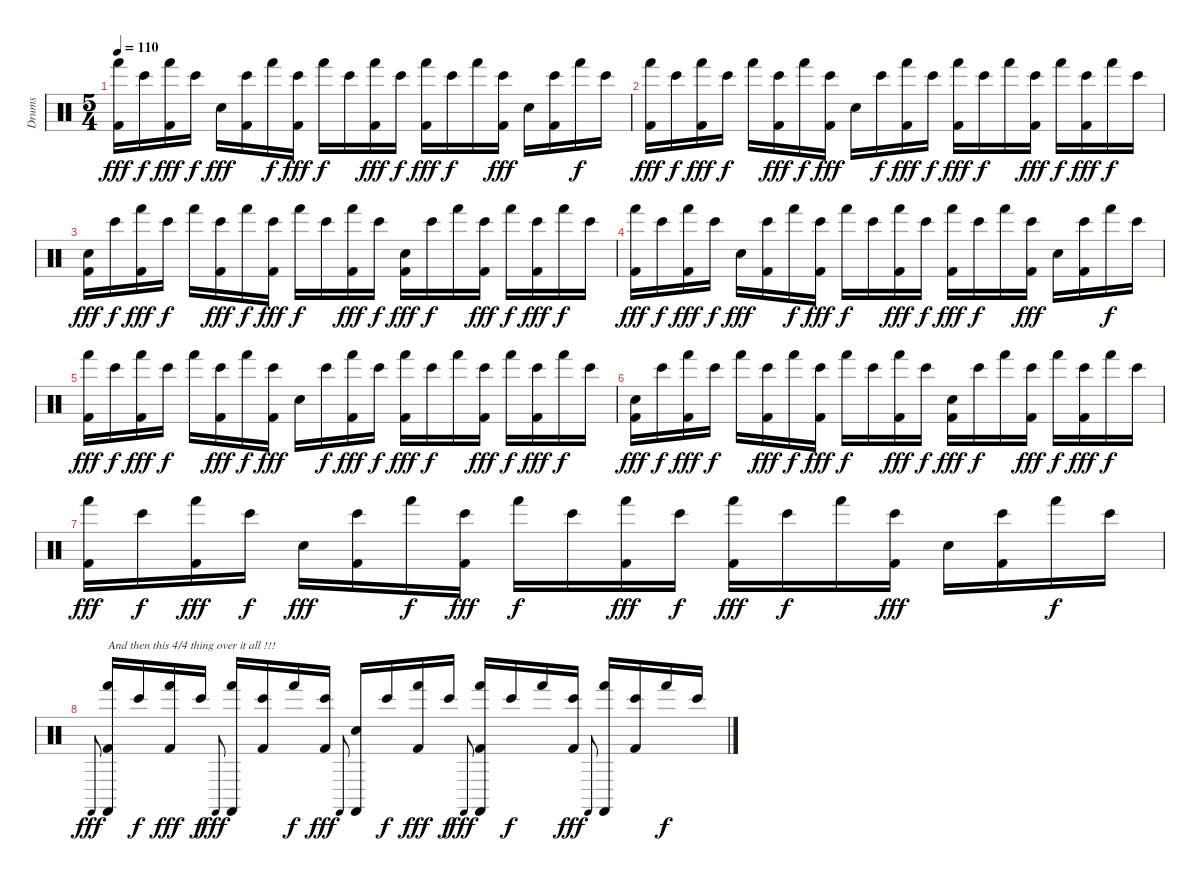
\track ("Drums" "Drums") {instrument percussion}
\staff {score}
\articulation defaults
\ts (5 4)
\tempo 110
\clef neutral
\ks c
("Hand (hit)" "Kick (hit) 2").16{dy fff} "Bongo High (hit)".16{dy f} ("Hand (hit)" "Kick (hit) 2").16{dy fff} "Bongo High (hit)".16{dy f} "Snare (hit) 2".16{dy fff} ("Bongo High (hit)" "Kick (hit) 2").16 "Hand (hit)".16{dy f} ("Bongo High (hit)" "Kick (hit) 2").16{dy fff} "Hand (hit)".16{dy f} "Bongo High (hit)".16 ("Hand (hit)" "Kick (hit) 2").16{dy fff} "Bongo High (hit)".16{dy f} ("Hand (hit)" "Kick (hit) 2").16{dy fff} "Bongo High (hit)".16{dy f} "Hand (hit)".16 ("Bongo High (hit)" "Kick (hit) 2").16{dy fff} "Snare (hit) 2".16 ("Bongo High (hit)" "Kick (hit) 2").16 "Hand (hit)".16{dy f} "Bongo High (hit)".16 |
("Hand (hit)" "Kick (hit) 2").16{dy fff} "Bongo High (hit)".16{dy f} ("Hand (hit)" "Kick (hit) 2").16{dy fff} "Bongo High (hit)".16{dy f} "Hand (hit)".16 ("Bongo High (hit)" "Kick (hit) 2").16{dy fff} "Hand (hit)".16{dy f} ("Bongo High (hit)" "Kick (hit) 2").16{dy fff} "Snare (hit) 2".16 "Bongo High (hit)".16{dy f} ("Hand (hit)" "Kick (hit) 2").16{dy fff} "Bongo High (hit)".16{dy f} ("Hand (hit)" "Kick (hit) 2").16{dy fff} "Bongo High (hit)".16{dy f} "Hand (hit)".16 ("Bongo High (hit)" "Kick (hit) 2").16{dy fff} "Hand (hit)".16{dy f} ("Bongo High (hit)" "Kick (hit) 2").16{dy fff} "Hand (hit)".16{dy f} "Bongo High (hit)".16 |
("Snare (hit) 2" "Kick (hit) 2").16{dy fff} "Bongo High (hit)".16{dy f} ("Hand (hit)" "Kick (hit) 2").16{dy fff} "Bongo High (hit)".16{dy f} "Hand (hit)".16 ("Bongo High (hit)" "Kick (hit) 2").16{dy fff} "Hand (hit)".16{dy f} ("Bongo High (hit)" "Kick (hit) 2").16{dy fff} "Hand (hit)".16{dy f} "Bongo High (hit)".16 ("Hand (hit)" "Kick (hit) 2").16{dy fff} "Bongo High (hit)".16{dy f} ("Snare (hit) 2" "Kick (hit) 2").16{dy fff} "Bongo High (hit)".16{dy f} "Hand (hit)".16 ("Bongo High (hit)" "Kick (hit) 2").16{dy fff} "Hand (hit)".16{dy f} ("Bongo High (hit)" "Kick (hit) 2").16{dy fff} "Hand (hit)".16{dy f} "Bongo High (hit)".16 |
("Hand (hit)" "Kick (hit) 2").16{dy fff} "Bongo High (hit)".16{dy f} ("Hand (hit)" "Kick (hit) 2").16{dy fff} "Bongo High (hit)".16{dy f} "Snare (hit) 2".16{dy fff} ("Bongo High (hit)" "Kick (hit) 2").16 "Hand (hit)".16{dy f} ("Bongo High (hit)" "Kick (hit) 2").16{dy fff} "Hand (hit)".16{dy f} "Bongo High (hit)".16 ("Hand (hit)" "Kick (hit) 2").16{dy fff} "Bongo High (hit)".16{dy f} ("Hand (hit)" "Kick (hit) 2").16{dy fff} "Bongo High (hit)".16{dy f} "Hand (hit)".16 ("Bongo High (hit)" "Kick (hit) 2").16{dy fff} "Snare (hit) 2".16 ("Bongo High (hit)" "Kick (hit) 2").16 "Hand (hit)".16{dy f} "Bongo High (hit)".16 |
("Hand (hit)" "Kick (hit) 2").16{dy fff} "Bongo High (hit)".16{dy f} ("Hand (hit)" "Kick (hit) 2").16{dy fff} "Bongo High (hit)".16{dy f} "Hand (hit)".16 ("Bongo High (hit)" "Kick (hit) 2").16{dy fff} "Hand (hit)".16{dy f} ("Bongo High (hit)" "Kick (hit) 2").16{dy fff} "Snare (hit) 2".16 "Bongo High (hit)".16{dy f} ("Hand (hit)" "Kick (hit) 2").16{dy fff} "Bongo High (hit)".16{dy f} ("Hand (hit)" "Kick (hit) 2").16{dy fff} "Bongo High (hit)".16{dy f} "Hand (hit)".16 ("Bongo High (hit)" "Kick (hit) 2").16{dy fff} "Hand (hit)".16{dy f} ("Bongo High (hit)" "Kick (hit) 2").16{dy fff} "Hand (hit)".16{dy f} "Bongo High (hit)".16 |
("Snare (hit) 2" "Kick (hit) 2").16{dy fff} "Bongo High (hit)".16{dy f} ("Hand (hit)" "Kick (hit) 2").16{dy fff} "Bongo High (hit)".16{dy f} "Hand (hit)".16 ("Bongo High (hit)" "Kick (hit) 2").16{dy fff} "Hand (hit)".16{dy f} ("Bongo High (hit)" "Kick (hit) 2").16{dy fff} "Hand (hit)".16{dy f} "Bongo High (hit)".16 ("Hand (hit)" "Kick (hit) 2").16{dy fff} "Bongo High (hit)".16{dy f} ("Snare (hit) 2" "Kick (hit) 2").16{dy fff} "Bongo High (hit)".16{dy f} "Hand (hit)".16 ("Bongo High (hit)" "Kick (hit) 2").16{dy fff} "Hand (hit)".16{dy f} ("Bongo High (hit)" "Kick (hit) 2").16{dy fff} "Hand (hit)".16{dy f} "Bongo High (hit)".16 |
("Hand (hit)" "Kick (hit) 2").16{dy fff} "Bongo High (hit)".16{dy f} ("Hand (hit)" "Kick (hit) 2").16{dy fff} "Bongo High (hit)".16{dy f} "Snare (hit) 2".16{dy fff} ("Bongo High (hit)" "Kick (hit) 2").16 "Hand (hit)".16{dy f} ("Bongo High (hit)" "Kick (hit) 2").16{dy fff} "Hand (hit)".16{dy f} "Bongo High (hit)".16 ("Hand (hit)" "Kick (hit) 2").16{dy fff} "Bongo High (hit)".16{dy f} ("Hand (hit)" "Kick (hit) 2").16{dy fff} "Bongo High (hit)".16{dy f} "Hand (hit)".16 ("Bongo High (hit)" "Kick (hit) 2").16{dy fff} "Snare (hit) 2".16 ("Bongo High (hit)" "Kick (hit) 2").16 "Hand (hit)".16{dy f} "Bongo High (hit)".16 |
"Castanets (hit)".8{gr onbeat dy fff} ("Castanets (hit)" "Hand (hit)" "Kick (hit) 2").16{txt "And then this 4/4 thing over it all !!!"} "Bongo High (hit)".16{dy f} ("Hand (hit)" "Kick (hit) 2").16{dy fff} "Bongo High (hit)".16{dy f} "Castanets (hit)".8{gr onbeat dy fff} ("Castanets (hit)" "Hand (hit)").16 ("Bongo High (hit)" "Kick (hit) 2").16 "Hand (hit)".16{dy f} ("Bongo High (hit)" "Kick (hit) 2").16{dy fff} "Castanets (hit)".8{gr onbeat} ("Castanets (hit)" "Snare (hit) 2").16 "Bongo High (hit)".16{dy f} ("Hand (hit)" "Kick (hit) 2").16{dy fff} "Bongo High (hit)".16{dy f} "Castanets (hit)".8{gr onbeat dy fff} ("Castanets (hit)" "Hand (hit)" "Kick (hit) 2").16 "Bongo High (hit)".16{dy f} "Hand (hit)".16 ("Bongo High (hit)" "Kick (hit) 2").16{dy fff} "Castanets (hit)".8{gr onbeat} ("Castanets (hit)" "Hand (hit)").16 ("Bongo High (hit)" "Kick (hit) 2").16 "Hand (hit)".16{dy f} "Bongo High (hit)".16
